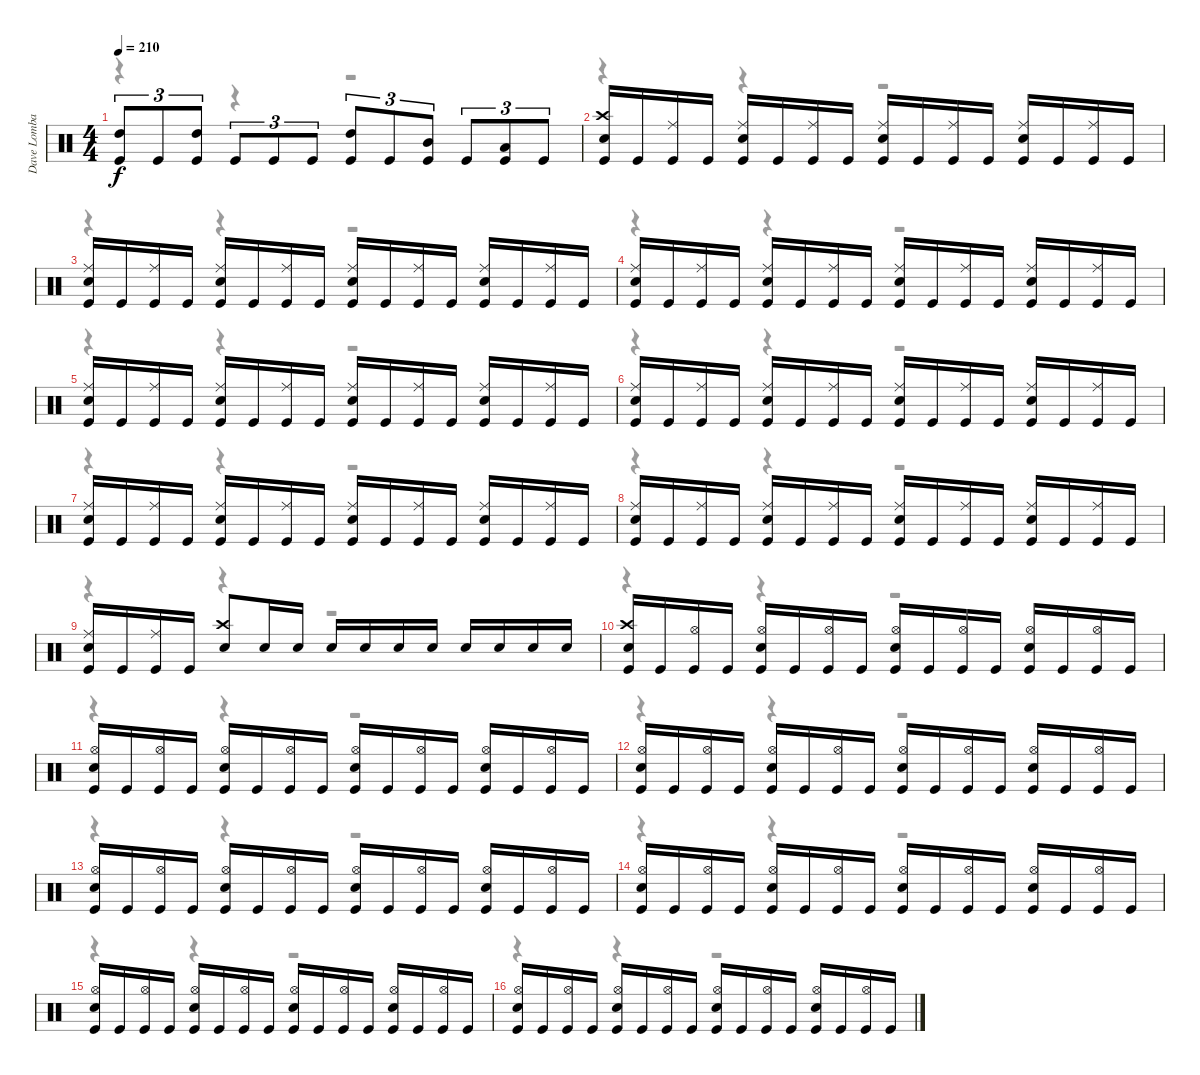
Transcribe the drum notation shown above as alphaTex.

\track ("Dave Lombardo" "Dave Lomba") {instrument percussion}
\staff {score}
\articulation defaults
\voice
\ts (4 4)
\tempo 210
\clef neutral
\ks c
("High Tom (hit)" "Kick (hit)").8{tu (3 2) dy f} "Kick (hit)".8{tu (3 2)} ("High Tom (hit)" "Kick (hit)").8{tu (3 2)} "Kick (hit)".8{tu (3 2)} "Kick (hit)".8{tu (3 2)} "Kick (hit)".8{tu (3 2)} ("High Tom (hit)" "Kick (hit)").8{tu (3 2)} "Kick (hit)".8{tu (3 2)} ("Mid Tom (hit)" "Kick (hit)").8{tu (3 2)} "Kick (hit)".8{tu (3 2)} ("Low Tom (hit)" "Kick (hit)").8{tu (3 2)} "Kick (hit)".8{tu (3 2)} |
("Crash high (hit)" "Snare (hit) 2" "Kick (hit)").16 "Kick (hit)".16 ("Ride (middle)" "Kick (hit)").16 "Kick (hit)".16 ("Ride (middle)" "Snare (hit) 2" "Kick (hit)").16 "Kick (hit)".16 ("Ride (middle)" "Kick (hit)").16 "Kick (hit)".16 ("Ride (middle)" "Snare (hit) 2" "Kick (hit)").16 "Kick (hit)".16 ("Ride (middle)" "Kick (hit)").16 "Kick (hit)".16 ("Ride (middle)" "Snare (hit) 2" "Kick (hit)").16 "Kick (hit)".16 ("Ride (middle)" "Kick (hit)").16 "Kick (hit)".16 |
("Ride (middle)" "Snare (hit) 2" "Kick (hit)").16 "Kick (hit)".16 ("Ride (middle)" "Kick (hit)").16 "Kick (hit)".16 ("Ride (middle)" "Snare (hit) 2" "Kick (hit)").16 "Kick (hit)".16 ("Ride (middle)" "Kick (hit)").16 "Kick (hit)".16 ("Ride (middle)" "Snare (hit) 2" "Kick (hit)").16 "Kick (hit)".16 ("Ride (middle)" "Kick (hit)").16 "Kick (hit)".16 ("Ride (middle)" "Snare (hit) 2" "Kick (hit)").16 "Kick (hit)".16 ("Ride (middle)" "Kick (hit)").16 "Kick (hit)".16 |
("Ride (middle)" "Snare (hit) 2" "Kick (hit)").16 "Kick (hit)".16 ("Ride (middle)" "Kick (hit)").16 "Kick (hit)".16 ("Ride (middle)" "Snare (hit) 2" "Kick (hit)").16 "Kick (hit)".16 ("Ride (middle)" "Kick (hit)").16 "Kick (hit)".16 ("Ride (middle)" "Snare (hit) 2" "Kick (hit)").16 "Kick (hit)".16 ("Ride (middle)" "Kick (hit)").16 "Kick (hit)".16 ("Ride (middle)" "Snare (hit) 2" "Kick (hit)").16 "Kick (hit)".16 ("Ride (middle)" "Kick (hit)").16 "Kick (hit)".16 |
("Ride (middle)" "Snare (hit) 2" "Kick (hit)").16 "Kick (hit)".16 ("Ride (middle)" "Kick (hit)").16 "Kick (hit)".16 ("Ride (middle)" "Snare (hit) 2" "Kick (hit)").16 "Kick (hit)".16 ("Ride (middle)" "Kick (hit)").16 "Kick (hit)".16 ("Ride (middle)" "Snare (hit) 2" "Kick (hit)").16 "Kick (hit)".16 ("Ride (middle)" "Kick (hit)").16 "Kick (hit)".16 ("Ride (middle)" "Snare (hit) 2" "Kick (hit)").16 "Kick (hit)".16 ("Ride (middle)" "Kick (hit)").16 "Kick (hit)".16 |
("Ride (middle)" "Snare (hit) 2" "Kick (hit)").16 "Kick (hit)".16 ("Ride (middle)" "Kick (hit)").16 "Kick (hit)".16 ("Ride (middle)" "Snare (hit) 2" "Kick (hit)").16 "Kick (hit)".16 ("Ride (middle)" "Kick (hit)").16 "Kick (hit)".16 ("Ride (middle)" "Snare (hit) 2" "Kick (hit)").16 "Kick (hit)".16 ("Ride (middle)" "Kick (hit)").16 "Kick (hit)".16 ("Ride (middle)" "Snare (hit) 2" "Kick (hit)").16 "Kick (hit)".16 ("Ride (middle)" "Kick (hit)").16 "Kick (hit)".16 |
("Ride (middle)" "Snare (hit) 2" "Kick (hit)").16 "Kick (hit)".16 ("Ride (middle)" "Kick (hit)").16 "Kick (hit)".16 ("Ride (middle)" "Snare (hit) 2" "Kick (hit)").16 "Kick (hit)".16 ("Ride (middle)" "Kick (hit)").16 "Kick (hit)".16 ("Ride (middle)" "Snare (hit) 2" "Kick (hit)").16 "Kick (hit)".16 ("Ride (middle)" "Kick (hit)").16 "Kick (hit)".16 ("Ride (middle)" "Snare (hit) 2" "Kick (hit)").16 "Kick (hit)".16 ("Ride (middle)" "Kick (hit)").16 "Kick (hit)".16 |
("Ride (middle)" "Snare (hit) 2" "Kick (hit)").16 "Kick (hit)".16 ("Ride (middle)" "Kick (hit)").16 "Kick (hit)".16 ("Ride (middle)" "Snare (hit) 2" "Kick (hit)").16 "Kick (hit)".16 ("Ride (middle)" "Kick (hit)").16 "Kick (hit)".16 ("Ride (middle)" "Snare (hit) 2" "Kick (hit)").16 "Kick (hit)".16 ("Ride (middle)" "Kick (hit)").16 "Kick (hit)".16 ("Ride (middle)" "Snare (hit) 2" "Kick (hit)").16 "Kick (hit)".16 ("Ride (middle)" "Kick (hit)").16 "Kick (hit)".16 |
("Ride (middle)" "Snare (hit) 2" "Kick (hit)").16 "Kick (hit)".16 ("Ride (middle)" "Kick (hit)").16 "Kick (hit)".16 ("Crash high (hit)" "Snare (hit) 2").8 "Snare (hit) 2".16 "Snare (hit) 2".16 "Snare (hit) 2".16 "Snare (hit) 2".16 "Snare (hit) 2".16 "Snare (hit) 2".16 "Snare (hit) 2".16 "Snare (hit) 2".16 "Snare (hit) 2".16 "Snare (hit) 2".16 |
("Crash high (hit)" "Snare (hit) 2" "Kick (hit)").16 "Kick (hit)".16 ("Hi-Hat (open)" "Kick (hit)").16 "Kick (hit)".16 ("Hi-Hat (open)" "Snare (hit) 2" "Kick (hit)").16 "Kick (hit)".16 ("Hi-Hat (open)" "Kick (hit)").16 "Kick (hit)".16 ("Hi-Hat (open)" "Snare (hit) 2" "Kick (hit)").16 "Kick (hit)".16 ("Hi-Hat (open)" "Kick (hit)").16 "Kick (hit)".16 ("Hi-Hat (open)" "Snare (hit) 2" "Kick (hit)").16 "Kick (hit)".16 ("Hi-Hat (open)" "Kick (hit)").16 "Kick (hit)".16 |
("Hi-Hat (open)" "Snare (hit) 2" "Kick (hit)").16 "Kick (hit)".16 ("Hi-Hat (open)" "Kick (hit)").16 "Kick (hit)".16 ("Hi-Hat (open)" "Snare (hit) 2" "Kick (hit)").16 "Kick (hit)".16 ("Hi-Hat (open)" "Kick (hit)").16 "Kick (hit)".16 ("Hi-Hat (open)" "Snare (hit) 2" "Kick (hit)").16 "Kick (hit)".16 ("Hi-Hat (open)" "Kick (hit)").16 "Kick (hit)".16 ("Hi-Hat (open)" "Snare (hit) 2" "Kick (hit)").16 "Kick (hit)".16 ("Hi-Hat (open)" "Kick (hit)").16 "Kick (hit)".16 |
("Hi-Hat (open)" "Snare (hit) 2" "Kick (hit)").16 "Kick (hit)".16 ("Hi-Hat (open)" "Kick (hit)").16 "Kick (hit)".16 ("Hi-Hat (open)" "Snare (hit) 2" "Kick (hit)").16 "Kick (hit)".16 ("Hi-Hat (open)" "Kick (hit)").16 "Kick (hit)".16 ("Hi-Hat (open)" "Snare (hit) 2" "Kick (hit)").16 "Kick (hit)".16 ("Hi-Hat (open)" "Kick (hit)").16 "Kick (hit)".16 ("Hi-Hat (open)" "Snare (hit) 2" "Kick (hit)").16 "Kick (hit)".16 ("Hi-Hat (open)" "Kick (hit)").16 "Kick (hit)".16 |
("Hi-Hat (open)" "Snare (hit) 2" "Kick (hit)").16 "Kick (hit)".16 ("Hi-Hat (open)" "Kick (hit)").16 "Kick (hit)".16 ("Hi-Hat (open)" "Snare (hit) 2" "Kick (hit)").16 "Kick (hit)".16 ("Hi-Hat (open)" "Kick (hit)").16 "Kick (hit)".16 ("Hi-Hat (open)" "Snare (hit) 2" "Kick (hit)").16 "Kick (hit)".16 ("Hi-Hat (open)" "Kick (hit)").16 "Kick (hit)".16 ("Hi-Hat (open)" "Snare (hit) 2" "Kick (hit)").16 "Kick (hit)".16 ("Hi-Hat (open)" "Kick (hit)").16 "Kick (hit)".16 |
("Hi-Hat (open)" "Snare (hit) 2" "Kick (hit)").16 "Kick (hit)".16 ("Hi-Hat (open)" "Kick (hit)").16 "Kick (hit)".16 ("Hi-Hat (open)" "Snare (hit) 2" "Kick (hit)").16 "Kick (hit)".16 ("Hi-Hat (open)" "Kick (hit)").16 "Kick (hit)".16 ("Hi-Hat (open)" "Snare (hit) 2" "Kick (hit)").16 "Kick (hit)".16 ("Hi-Hat (open)" "Kick (hit)").16 "Kick (hit)".16 ("Hi-Hat (open)" "Snare (hit) 2" "Kick (hit)").16 "Kick (hit)".16 ("Hi-Hat (open)" "Kick (hit)").16 "Kick (hit)".16 |
("Hi-Hat (open)" "Snare (hit) 2" "Kick (hit)").16 "Kick (hit)".16 ("Hi-Hat (open)" "Kick (hit)").16 "Kick (hit)".16 ("Hi-Hat (open)" "Snare (hit) 2" "Kick (hit)").16 "Kick (hit)".16 ("Hi-Hat (open)" "Kick (hit)").16 "Kick (hit)".16 ("Hi-Hat (open)" "Snare (hit) 2" "Kick (hit)").16 "Kick (hit)".16 ("Hi-Hat (open)" "Kick (hit)").16 "Kick (hit)".16 ("Hi-Hat (open)" "Snare (hit) 2" "Kick (hit)").16 "Kick (hit)".16 ("Hi-Hat (open)" "Kick (hit)").16 "Kick (hit)".16 |
("Hi-Hat (open)" "Snare (hit) 2" "Kick (hit)").16 "Kick (hit)".16 ("Hi-Hat (open)" "Kick (hit)").16 "Kick (hit)".16 ("Hi-Hat (open)" "Snare (hit) 2" "Kick (hit)").16 "Kick (hit)".16 ("Hi-Hat (open)" "Kick (hit)").16 "Kick (hit)".16 ("Hi-Hat (open)" "Snare (hit) 2" "Kick (hit)").16 "Kick (hit)".16 ("Hi-Hat (open)" "Kick (hit)").16 "Kick (hit)".16 ("Hi-Hat (open)" "Snare (hit) 2" "Kick (hit)").16 "Kick (hit)".16 ("Hi-Hat (open)" "Kick (hit)").16 "Kick (hit)".16
\voice
\clef neutral
\ottava regular
\simile none
\ks c
r.4{dy f} r.4 r.2 |
r.4 r.4 r.2 |
r.4 r.4 r.2 |
r.4 r.4 r.2 |
r.4 r.4 r.2 |
r.4 r.4 r.2 |
r.4 r.4 r.2 |
r.4 r.4 r.2 |
r.4 r.4 r.2 |
r.4 r.4 r.2 |
r.4 r.4 r.2 |
r.4 r.4 r.2 |
r.4 r.4 r.2 |
r.4 r.4 r.2 |
r.4 r.4 r.2 |
r.4 r.4 r.2
